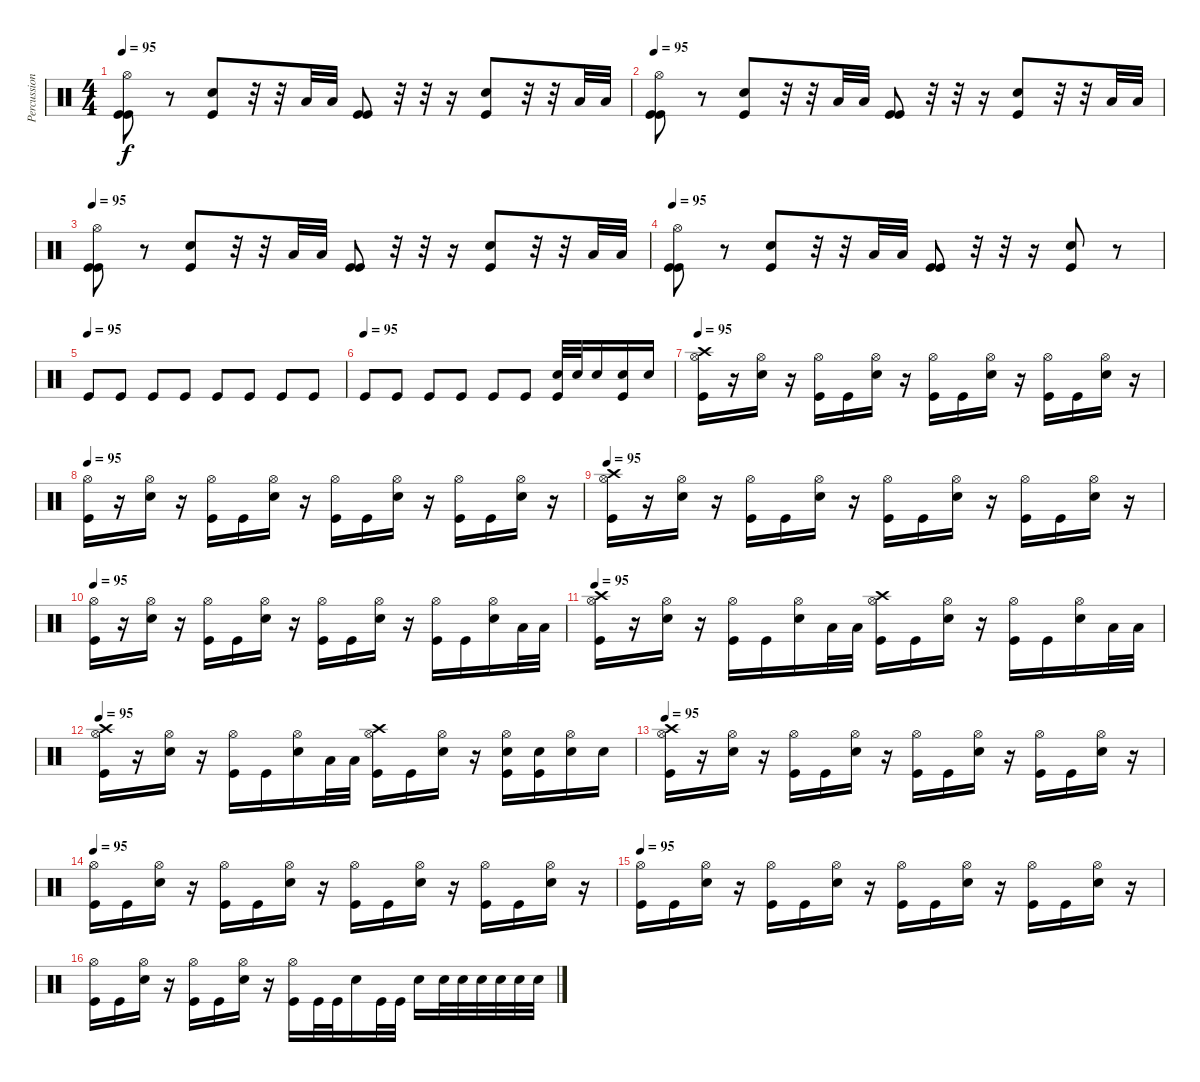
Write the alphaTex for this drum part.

\track ("Percussion" "Percussion") {instrument percussion}
\staff {score}
\articulation defaults
\ts (4 4)
\tempo 95
\clef neutral
\ks c
("Hi-Hat (open)" "Kick (hit)" "Kick (hit)").8{dy f} r.8 ("Electric Snare (hit)" "Kick (hit)").8 r.32 r.32 "Low Tom (hit)".32 "Low Tom (hit)".32 ("Kick (hit)" "Kick (hit)").8 r.32 r.32 r.16 ("Electric Snare (hit)" "Kick (hit)").8 r.32 r.32 "Low Tom (hit)".32 "Low Tom (hit)".32 |
\tempo 95
("Hi-Hat (open)" "Kick (hit)" "Kick (hit)").8 r.8 ("Electric Snare (hit)" "Kick (hit)").8 r.32 r.32 "Low Tom (hit)".32 "Low Tom (hit)".32 ("Kick (hit)" "Kick (hit)").8 r.32 r.32 r.16 ("Electric Snare (hit)" "Kick (hit)").8 r.32 r.32 "Low Tom (hit)".32 "Low Tom (hit)".32 |
\tempo 95
("Hi-Hat (open)" "Kick (hit)" "Kick (hit)").8 r.8 ("Electric Snare (hit)" "Kick (hit)").8 r.32 r.32 "Low Tom (hit)".32 "Low Tom (hit)".32 ("Kick (hit)" "Kick (hit)").8 r.32 r.32 r.16 ("Electric Snare (hit)" "Kick (hit)").8 r.32 r.32 "Low Tom (hit)".32 "Low Tom (hit)".32 |
\tempo 95
("Hi-Hat (open)" "Kick (hit)" "Kick (hit)").8 r.8 ("Electric Snare (hit)" "Kick (hit)").8 r.32 r.32 "Low Tom (hit)".32 "Low Tom (hit)".32 ("Kick (hit)" "Kick (hit)").8 r.32 r.32 r.16 ("Electric Snare (hit)" "Kick (hit)").8 r.8 |
\tempo (95)
"Kick (hit)".8{volume 1} "Kick (hit)".8 "Kick (hit)".8{volume 3} "Kick (hit)".8 "Kick (hit)".8{volume 5} "Kick (hit)".8 "Kick (hit)".8{volume 7} "Kick (hit)".8 |
\tempo (95)
"Kick (hit)".8{volume 9} "Kick (hit)".8{volume 10} "Kick (hit)".8{volume 11} "Kick (hit)".8{volume 12} "Kick (hit)".8{volume 13} "Kick (hit)".8 ("Snare (hit) 2" "Kick (hit)").32{volume 13} "Snare (hit) 2".32 "Snare (hit) 2".16 ("Snare (hit) 2" "Kick (hit)").16 "Snare (hit) 2".16 |
\tempo 95
("Hi-Hat (open)" "Crash high (hit)" "Kick (hit)").16 r.16 ("Hi-Hat (open)" "Snare (hit) 2").16 r.16 ("Hi-Hat (open)" "Kick (hit)").16 "Kick (hit)".16 ("Hi-Hat (open)" "Snare (hit) 2").16 r.16 ("Hi-Hat (open)" "Kick (hit)").16 "Kick (hit)".16 ("Hi-Hat (open)" "Snare (hit) 2").16 r.16 ("Hi-Hat (open)" "Kick (hit)").16 "Kick (hit)".16 ("Hi-Hat (open)" "Snare (hit) 2").16 r.16 |
\tempo 95
("Hi-Hat (open)" "Kick (hit)").16 r.16 ("Hi-Hat (open)" "Snare (hit) 2").16 r.16 ("Hi-Hat (open)" "Kick (hit)").16 "Kick (hit)".16 ("Hi-Hat (open)" "Snare (hit) 2").16 r.16 ("Hi-Hat (open)" "Kick (hit)").16 "Kick (hit)".16 ("Hi-Hat (open)" "Snare (hit) 2").16 r.16 ("Hi-Hat (open)" "Kick (hit)").16 "Kick (hit)".16 ("Hi-Hat (open)" "Snare (hit) 2").16 r.16 |
\tempo 95
("Hi-Hat (open)" "Crash high (hit)" "Kick (hit)").16 r.16 ("Hi-Hat (open)" "Snare (hit) 2").16 r.16 ("Hi-Hat (open)" "Kick (hit)").16 "Kick (hit)".16 ("Hi-Hat (open)" "Snare (hit) 2").16 r.16 ("Hi-Hat (open)" "Kick (hit)").16 "Kick (hit)".16 ("Hi-Hat (open)" "Snare (hit) 2").16 r.16 ("Hi-Hat (open)" "Kick (hit)").16 "Kick (hit)".16 ("Hi-Hat (open)" "Snare (hit) 2").16 r.16 |
\tempo 95
("Hi-Hat (open)" "Kick (hit)").16 r.16 ("Hi-Hat (open)" "Snare (hit) 2").16 r.16 ("Hi-Hat (open)" "Kick (hit)").16 "Kick (hit)".16 ("Hi-Hat (open)" "Snare (hit) 2").16 r.16 ("Hi-Hat (open)" "Kick (hit)").16 "Kick (hit)".16 ("Hi-Hat (open)" "Snare (hit) 2").16 r.16 ("Hi-Hat (open)" "Kick (hit)").16 "Kick (hit)".16 ("Hi-Hat (open)" "Snare (hit) 2").16 "Low Tom (hit)".32 "Low Tom (hit)".32 |
\tempo 95
("Hi-Hat (open)" "Crash high (hit)" "Kick (hit)").16 r.16 ("Hi-Hat (open)" "Snare (hit) 2").16 r.16 ("Hi-Hat (open)" "Kick (hit)").16 "Kick (hit)".16 ("Hi-Hat (open)" "Snare (hit) 2").16 "Low Tom (hit)".32 "Low Tom (hit)".32 ("Hi-Hat (open)" "Crash high (hit)" "Kick (hit)").16 "Kick (hit)".16 ("Hi-Hat (open)" "Snare (hit) 2").16 r.16 ("Hi-Hat (open)" "Kick (hit)").16 "Kick (hit)".16 ("Hi-Hat (open)" "Snare (hit) 2").16 "Low Tom (hit)".32 "Low Tom (hit)".32 |
\tempo 95
("Hi-Hat (open)" "Crash high (hit)" "Kick (hit)").16 r.16 ("Hi-Hat (open)" "Snare (hit) 2").16 r.16 ("Hi-Hat (open)" "Kick (hit)").16 "Kick (hit)".16 ("Hi-Hat (open)" "Snare (hit) 2").16 "Low Tom (hit)".32 "Low Tom (hit)".32 ("Hi-Hat (open)" "Crash high (hit)" "Kick (hit)").16 "Kick (hit)".16 ("Hi-Hat (open)" "Snare (hit) 2").16 r.16 ("Hi-Hat (open)" "Snare (hit) 2" "Kick (hit)").16 ("Snare (hit) 2" "Kick (hit)").16 ("Hi-Hat (open)" "Snare (hit) 2").16 "Snare (hit) 2".16 |
\tempo 95
("Hi-Hat (open)" "Crash high (hit)" "Kick (hit)").16 r.16 ("Hi-Hat (open)" "Snare (hit) 2").16 r.16 ("Hi-Hat (open)" "Kick (hit)").16 "Kick (hit)".16 ("Hi-Hat (open)" "Snare (hit) 2").16 r.16 ("Hi-Hat (open)" "Kick (hit)").16 "Kick (hit)".16 ("Hi-Hat (open)" "Snare (hit) 2").16 r.16 ("Hi-Hat (open)" "Kick (hit)").16 "Kick (hit)".16 ("Hi-Hat (open)" "Snare (hit) 2").16 r.16 |
\tempo 95
("Hi-Hat (open)" "Kick (hit)").16 "Kick (hit)".16 ("Hi-Hat (open)" "Snare (hit) 2").16 r.16 ("Hi-Hat (open)" "Kick (hit)").16 "Kick (hit)".16 ("Hi-Hat (open)" "Snare (hit) 2").16 r.16 ("Hi-Hat (open)" "Kick (hit)").16 "Kick (hit)".16 ("Hi-Hat (open)" "Snare (hit) 2").16 r.16 ("Hi-Hat (open)" "Kick (hit)").16 "Kick (hit)".16 ("Hi-Hat (open)" "Snare (hit) 2").16 r.16 |
\tempo 95
("Hi-Hat (open)" "Kick (hit)").16 "Kick (hit)".16 ("Hi-Hat (open)" "Snare (hit) 2").16 r.16 ("Hi-Hat (open)" "Kick (hit)").16 "Kick (hit)".16 ("Hi-Hat (open)" "Snare (hit) 2").16 r.16 ("Hi-Hat (open)" "Kick (hit)").16 "Kick (hit)".16 ("Hi-Hat (open)" "Snare (hit) 2").16 r.16 ("Hi-Hat (open)" "Kick (hit)").16 "Kick (hit)".16 ("Hi-Hat (open)" "Snare (hit) 2").16 r.16 |
("Hi-Hat (open)" "Kick (hit)").16 "Kick (hit)".16 ("Hi-Hat (open)" "Snare (hit) 2").16 r.16 ("Hi-Hat (open)" "Kick (hit)").16 "Kick (hit)".16 ("Hi-Hat (open)" "Snare (hit) 2").16 r.16 ("Hi-Hat (open)" "Kick (hit)").16 "Kick (hit)".32 "Kick (hit)".32 "Snare (hit) 2".16 "Kick (hit)".32 "Kick (hit)".32 "Snare (hit) 2".16 "Snare (hit) 2".32 "Snare (hit) 2".32 "Snare (hit) 2".32 "Snare (hit) 2".32 "Snare (hit) 2".32 "Snare (hit) 2".32
